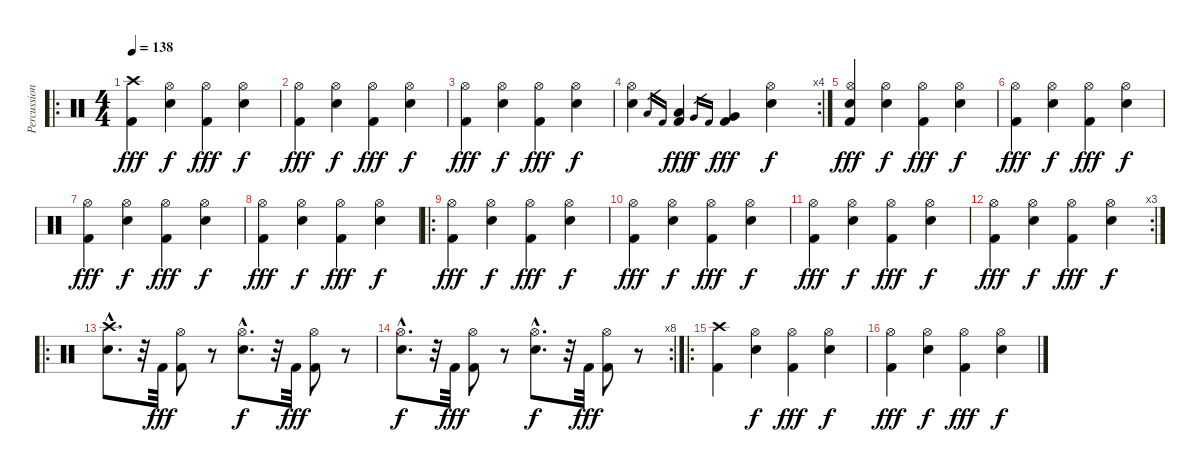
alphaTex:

\track ("Percussion" "Percussion") {instrument percussion}
\staff {score}
\articulation defaults
\ro
\ts (4 4)
\tempo 138
\clef neutral
\ks c
("Crash high (hit)" "Kick (hit) 2").4{dy fff} ("Hi-Hat (open)" "Snare (hit) 2").4{dy f} ("Hi-Hat (open)" "Kick (hit) 2").4{dy fff} ("Hi-Hat (open)" "Snare (hit) 2").4{dy f} |
("Hi-Hat (open)" "Kick (hit) 2").4{dy fff} ("Hi-Hat (open)" "Snare (hit) 2").4{dy f} ("Hi-Hat (open)" "Kick (hit) 2").4{dy fff} ("Hi-Hat (open)" "Snare (hit) 2").4{dy f} |
("Hi-Hat (open)" "Kick (hit) 2").4{dy fff} ("Hi-Hat (open)" "Snare (hit) 2").4{dy f} ("Hi-Hat (open)" "Kick (hit) 2").4{dy fff} ("Hi-Hat (open)" "Snare (hit) 2").4{dy f} |
\rc 4
("Hi-Hat (open)" "Snare (hit) 2").4 "Low Tom (hit)".16{gr} "Kick (hit) 2".16{gr} ("Low Tom (hit)" "Kick (hit) 2").4{dy fff} "Very Low Tom (hit)".16{gr dy f} "Kick (hit) 2".16{gr} ("Very Low Tom (hit)" "Kick (hit) 2").4{dy fff} ("Hi-Hat (open)" "Snare (hit) 2").4{dy f} |
("Hi-Hat (open)" "Snare (hit) 2" "Kick (hit) 2").4{dy fff} ("Hi-Hat (open)" "Snare (hit) 2").4{dy f} ("Hi-Hat (open)" "Kick (hit) 2").4{dy fff} ("Hi-Hat (open)" "Snare (hit) 2").4{dy f} |
("Hi-Hat (open)" "Kick (hit) 2").4{dy fff} ("Hi-Hat (open)" "Snare (hit) 2").4{dy f} ("Hi-Hat (open)" "Kick (hit) 2").4{dy fff} ("Hi-Hat (open)" "Snare (hit) 2").4{dy f} |
("Hi-Hat (open)" "Kick (hit) 2").4{dy fff} ("Hi-Hat (open)" "Snare (hit) 2").4{dy f} ("Hi-Hat (open)" "Kick (hit) 2").4{dy fff} ("Hi-Hat (open)" "Snare (hit) 2").4{dy f} |
("Hi-Hat (open)" "Kick (hit) 2").4{dy fff} ("Hi-Hat (open)" "Snare (hit) 2").4{dy f} ("Hi-Hat (open)" "Kick (hit) 2").4{dy fff} ("Hi-Hat (open)" "Snare (hit) 2").4{dy f} |
\ro
("Hi-Hat (open)" "Kick (hit) 2").4{dy fff} ("Hi-Hat (open)" "Snare (hit) 2").4{dy f} ("Hi-Hat (open)" "Kick (hit) 2").4{dy fff} ("Hi-Hat (open)" "Snare (hit) 2").4{dy f} |
("Hi-Hat (open)" "Kick (hit) 2").4{dy fff} ("Hi-Hat (open)" "Snare (hit) 2").4{dy f} ("Hi-Hat (open)" "Kick (hit) 2").4{dy fff} ("Hi-Hat (open)" "Snare (hit) 2").4{dy f} |
("Hi-Hat (open)" "Kick (hit) 2").4{dy fff} ("Hi-Hat (open)" "Snare (hit) 2").4{dy f} ("Hi-Hat (open)" "Kick (hit) 2").4{dy fff} ("Hi-Hat (open)" "Snare (hit) 2").4{dy f} |
\rc 3
("Hi-Hat (open)" "Kick (hit) 2").4{dy fff} ("Hi-Hat (open)" "Snare (hit) 2").4{dy f} ("Hi-Hat (open)" "Kick (hit) 2").4{dy fff} ("Hi-Hat (open)" "Snare (hit) 2").4{dy f} |
\ro
("Crash high (hit)"{hac} "Snare (hit) 2"{hac}).8{d} r.32 "Kick (hit) 2".32{dy fff} ("Hi-Hat (open)" "Kick (hit) 2").8 r.8 ("Hi-Hat (open)"{hac} "Snare (hit) 2"{hac}).8{d dy f} r.32 "Kick (hit) 2".32{dy fff} ("Hi-Hat (open)" "Kick (hit) 2").8 r.8 |
\rc 8
("Hi-Hat (open)"{hac} "Snare (hit) 2"{hac}).8{d dy f} r.32 "Kick (hit) 2".32{dy fff} ("Hi-Hat (open)" "Kick (hit) 2").8 r.8 ("Hi-Hat (open)"{hac} "Snare (hit) 2"{hac}).8{d dy f} r.32 "Kick (hit) 2".32{dy fff} ("Hi-Hat (open)" "Kick (hit) 2").8 r.8 |
\ro
("Crash high (hit)" "Kick (hit) 2").4 ("Hi-Hat (open)" "Snare (hit) 2").4{dy f} ("Hi-Hat (open)" "Kick (hit) 2").4{dy fff} ("Hi-Hat (open)" "Snare (hit) 2").4{dy f} |
("Hi-Hat (open)" "Kick (hit) 2").4{dy fff} ("Hi-Hat (open)" "Snare (hit) 2").4{dy f} ("Hi-Hat (open)" "Kick (hit) 2").4{dy fff} ("Hi-Hat (open)" "Snare (hit) 2").4{dy f}
